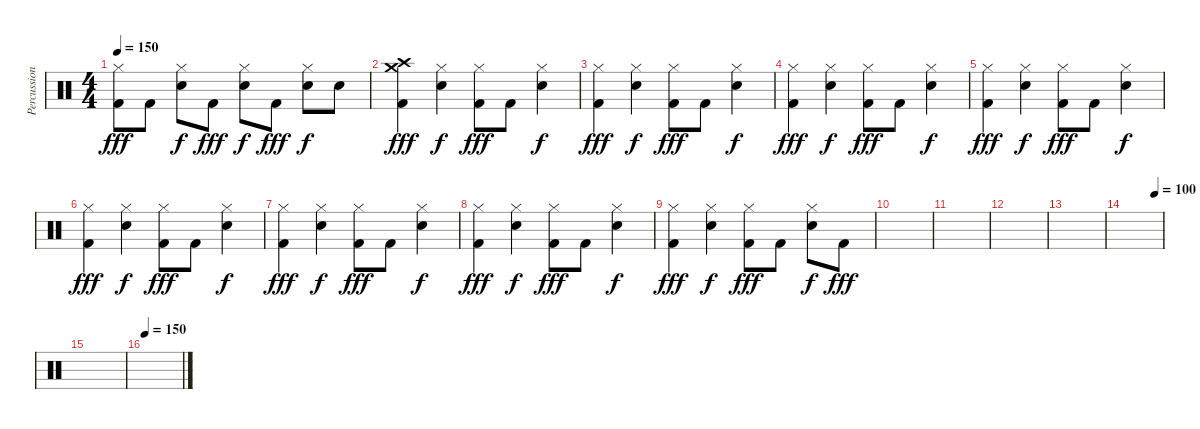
\track ("Percussion" "Percussion") {instrument percussion}
\staff {score}
\articulation defaults
\ts (4 4)
\tempo 150
\clef neutral
\ks c
("Hi-Hat (closed)" "Kick (hit) 2").8{dy fff} "Kick (hit) 2".8 ("Hi-Hat (closed)" "Electric Snare (hit)").8{dy f} "Kick (hit) 2".8{dy fff} ("Hi-Hat (closed)" "Electric Snare (hit)").8{dy f} "Kick (hit) 2".8{dy fff} ("Hi-Hat (closed)" "Electric Snare (hit)").8{dy f} "Electric Snare (hit)".8 |
("Crash medium (hit)" "Crash high (hit)" "Kick (hit) 2").4{dy fff} ("Hi-Hat (closed)" "Electric Snare (hit)").4{dy f} ("Hi-Hat (closed)" "Kick (hit) 2").8{dy fff} "Kick (hit) 2".8 ("Hi-Hat (closed)" "Electric Snare (hit)").4{dy f} |
("Hi-Hat (closed)" "Kick (hit) 2").4{dy fff} ("Hi-Hat (closed)" "Electric Snare (hit)").4{dy f} ("Hi-Hat (closed)" "Kick (hit) 2").8{dy fff} "Kick (hit) 2".8 ("Hi-Hat (closed)" "Electric Snare (hit)").4{dy f} |
("Hi-Hat (closed)" "Kick (hit) 2").4{dy fff} ("Hi-Hat (closed)" "Electric Snare (hit)").4{dy f} ("Hi-Hat (closed)" "Kick (hit) 2").8{dy fff} "Kick (hit) 2".8 ("Hi-Hat (closed)" "Electric Snare (hit)").4{dy f} |
("Hi-Hat (closed)" "Kick (hit) 2").4{dy fff} ("Hi-Hat (closed)" "Electric Snare (hit)").4{dy f} ("Hi-Hat (closed)" "Kick (hit) 2").8{dy fff} "Kick (hit) 2".8 ("Hi-Hat (closed)" "Electric Snare (hit)").4{dy f} |
("Hi-Hat (closed)" "Kick (hit) 2").4{dy fff} ("Hi-Hat (closed)" "Electric Snare (hit)").4{dy f} ("Hi-Hat (closed)" "Kick (hit) 2").8{dy fff} "Kick (hit) 2".8 ("Hi-Hat (closed)" "Electric Snare (hit)").4{dy f} |
("Hi-Hat (closed)" "Kick (hit) 2").4{dy fff} ("Hi-Hat (closed)" "Electric Snare (hit)").4{dy f} ("Hi-Hat (closed)" "Kick (hit) 2").8{dy fff} "Kick (hit) 2".8 ("Hi-Hat (closed)" "Electric Snare (hit)").4{dy f} |
("Hi-Hat (closed)" "Kick (hit) 2").4{dy fff} ("Hi-Hat (closed)" "Electric Snare (hit)").4{dy f} ("Hi-Hat (closed)" "Kick (hit) 2").8{dy fff} "Kick (hit) 2".8 ("Hi-Hat (closed)" "Electric Snare (hit)").4{dy f} |
("Hi-Hat (closed)" "Kick (hit) 2").4{dy fff} ("Hi-Hat (closed)" "Electric Snare (hit)").4{dy f} ("Hi-Hat (closed)" "Kick (hit) 2").8{dy fff} "Kick (hit) 2".8 ("Hi-Hat (closed)" "Electric Snare (hit)").8{dy f} "Kick (hit) 2".8{dy fff} |
|
|
|
|
\tempo (100 0.8125)
|
|
\tempo 150
